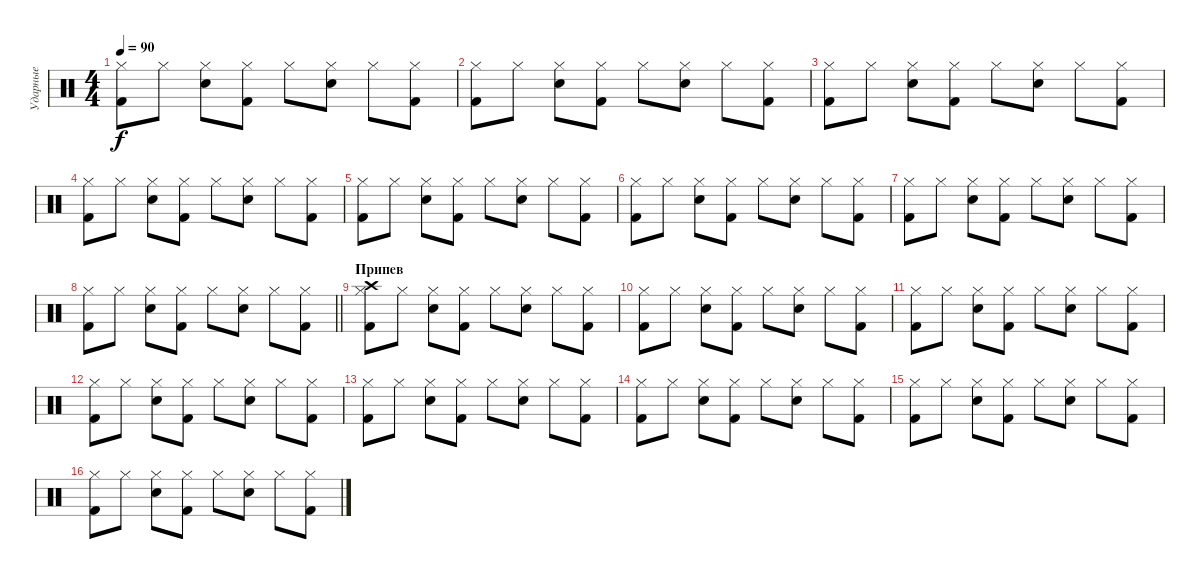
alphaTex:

\track ("Ударные" "Ударные") {instrument percussion}
\staff {score}
\articulation defaults
\ts (4 4)
\tempo 90
\clef neutral
\ks c
("Hi-Hat (closed)" "Kick (hit) 2").8{dy f} "Hi-Hat (closed)".8 ("Hi-Hat (closed)" "Electric Snare (hit)").8 ("Hi-Hat (closed)" "Kick (hit) 2").8 "Hi-Hat (closed)".8 ("Hi-Hat (closed)" "Electric Snare (hit)").8 "Hi-Hat (closed)".8 ("Hi-Hat (closed)" "Kick (hit) 2").8 |
("Hi-Hat (closed)" "Kick (hit) 2").8 "Hi-Hat (closed)".8 ("Hi-Hat (closed)" "Electric Snare (hit)").8 ("Hi-Hat (closed)" "Kick (hit) 2").8 "Hi-Hat (closed)".8 ("Hi-Hat (closed)" "Electric Snare (hit)").8 "Hi-Hat (closed)".8 ("Hi-Hat (closed)" "Kick (hit) 2").8 |
("Hi-Hat (closed)" "Kick (hit) 2").8 "Hi-Hat (closed)".8 ("Hi-Hat (closed)" "Electric Snare (hit)").8 ("Hi-Hat (closed)" "Kick (hit) 2").8 "Hi-Hat (closed)".8 ("Hi-Hat (closed)" "Electric Snare (hit)").8 "Hi-Hat (closed)".8 ("Hi-Hat (closed)" "Kick (hit) 2").8 |
("Hi-Hat (closed)" "Kick (hit) 2").8 "Hi-Hat (closed)".8 ("Hi-Hat (closed)" "Electric Snare (hit)").8 ("Hi-Hat (closed)" "Kick (hit) 2").8 "Hi-Hat (closed)".8 ("Hi-Hat (closed)" "Electric Snare (hit)").8 "Hi-Hat (closed)".8 ("Hi-Hat (closed)" "Kick (hit) 2").8 |
("Hi-Hat (closed)" "Kick (hit) 2").8 "Hi-Hat (closed)".8 ("Hi-Hat (closed)" "Electric Snare (hit)").8 ("Hi-Hat (closed)" "Kick (hit) 2").8 "Hi-Hat (closed)".8 ("Hi-Hat (closed)" "Electric Snare (hit)").8 "Hi-Hat (closed)".8 ("Hi-Hat (closed)" "Kick (hit) 2").8 |
("Hi-Hat (closed)" "Kick (hit) 2").8 "Hi-Hat (closed)".8 ("Hi-Hat (closed)" "Electric Snare (hit)").8 ("Hi-Hat (closed)" "Kick (hit) 2").8 "Hi-Hat (closed)".8 ("Hi-Hat (closed)" "Electric Snare (hit)").8 "Hi-Hat (closed)".8 ("Hi-Hat (closed)" "Kick (hit) 2").8 |
("Hi-Hat (closed)" "Kick (hit) 2").8 "Hi-Hat (closed)".8 ("Hi-Hat (closed)" "Electric Snare (hit)").8 ("Hi-Hat (closed)" "Kick (hit) 2").8 "Hi-Hat (closed)".8 ("Hi-Hat (closed)" "Electric Snare (hit)").8 "Hi-Hat (closed)".8 ("Hi-Hat (closed)" "Kick (hit) 2").8 |
\barLineRight lightlight
("Hi-Hat (closed)" "Kick (hit) 2").8 "Hi-Hat (closed)".8 ("Hi-Hat (closed)" "Electric Snare (hit)").8 ("Hi-Hat (closed)" "Kick (hit) 2").8 "Hi-Hat (closed)".8 ("Hi-Hat (closed)" "Electric Snare (hit)").8 "Hi-Hat (closed)".8 ("Hi-Hat (closed)" "Kick (hit) 2").8 |
\section ("" "Припев")
("Crash high (hit)" "Hi-Hat (closed)" "Kick (hit) 2").8 "Hi-Hat (closed)".8 ("Hi-Hat (closed)" "Electric Snare (hit)").8 ("Hi-Hat (closed)" "Kick (hit) 2").8 "Hi-Hat (closed)".8 ("Hi-Hat (closed)" "Electric Snare (hit)").8 "Hi-Hat (closed)".8 ("Hi-Hat (closed)" "Kick (hit) 2").8 |
("Hi-Hat (closed)" "Kick (hit) 2").8 "Hi-Hat (closed)".8 ("Hi-Hat (closed)" "Electric Snare (hit)").8 ("Hi-Hat (closed)" "Kick (hit) 2").8 "Hi-Hat (closed)".8 ("Hi-Hat (closed)" "Electric Snare (hit)").8 "Hi-Hat (closed)".8 ("Hi-Hat (closed)" "Kick (hit) 2").8 |
("Hi-Hat (closed)" "Kick (hit) 2").8 "Hi-Hat (closed)".8 ("Hi-Hat (closed)" "Electric Snare (hit)").8 ("Hi-Hat (closed)" "Kick (hit) 2").8 "Hi-Hat (closed)".8 ("Hi-Hat (closed)" "Electric Snare (hit)").8 "Hi-Hat (closed)".8 ("Hi-Hat (closed)" "Kick (hit) 2").8 |
("Hi-Hat (closed)" "Kick (hit) 2").8 "Hi-Hat (closed)".8 ("Hi-Hat (closed)" "Electric Snare (hit)").8 ("Hi-Hat (closed)" "Kick (hit) 2").8 "Hi-Hat (closed)".8 ("Hi-Hat (closed)" "Electric Snare (hit)").8 "Hi-Hat (closed)".8 ("Hi-Hat (closed)" "Kick (hit) 2").8 |
("Hi-Hat (closed)" "Kick (hit) 2").8 "Hi-Hat (closed)".8 ("Hi-Hat (closed)" "Electric Snare (hit)").8 ("Hi-Hat (closed)" "Kick (hit) 2").8 "Hi-Hat (closed)".8 ("Hi-Hat (closed)" "Electric Snare (hit)").8 "Hi-Hat (closed)".8 ("Hi-Hat (closed)" "Kick (hit) 2").8 |
("Hi-Hat (closed)" "Kick (hit) 2").8 "Hi-Hat (closed)".8 ("Hi-Hat (closed)" "Electric Snare (hit)").8 ("Hi-Hat (closed)" "Kick (hit) 2").8 "Hi-Hat (closed)".8 ("Hi-Hat (closed)" "Electric Snare (hit)").8 "Hi-Hat (closed)".8 ("Hi-Hat (closed)" "Kick (hit) 2").8 |
("Hi-Hat (closed)" "Kick (hit) 2").8 "Hi-Hat (closed)".8 ("Hi-Hat (closed)" "Electric Snare (hit)").8 ("Hi-Hat (closed)" "Kick (hit) 2").8 "Hi-Hat (closed)".8 ("Hi-Hat (closed)" "Electric Snare (hit)").8 "Hi-Hat (closed)".8 ("Hi-Hat (closed)" "Kick (hit) 2").8 |
("Hi-Hat (closed)" "Kick (hit) 2").8 "Hi-Hat (closed)".8 ("Hi-Hat (closed)" "Electric Snare (hit)").8 ("Hi-Hat (closed)" "Kick (hit) 2").8 "Hi-Hat (closed)".8 ("Hi-Hat (closed)" "Electric Snare (hit)").8 "Hi-Hat (closed)".8 ("Hi-Hat (closed)" "Kick (hit) 2").8
